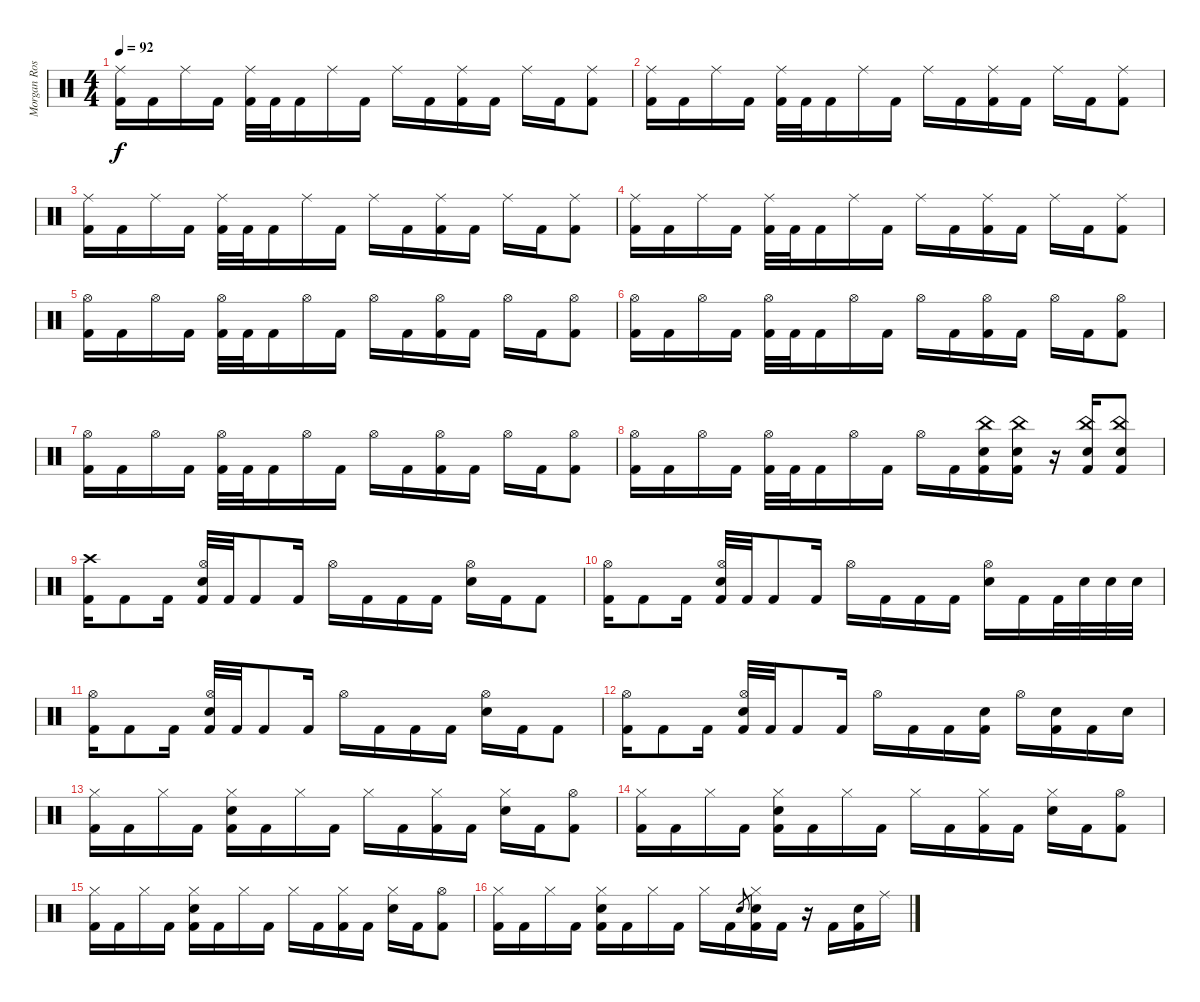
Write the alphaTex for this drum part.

\track ("Morgan Rose - Drums" "Morgan Ros") {instrument percussion}
\staff {score}
\articulation defaults
\ts (4 4)
\tempo 92
\clef neutral
\ks c
("Ride (middle)" "Kick (hit) 2").16{dy f} "Kick (hit) 2".16 "Ride (middle)".16 "Kick (hit) 2".16 ("Ride (middle)" "Kick (hit) 2").32 "Kick (hit) 2".32 "Kick (hit) 2".16 "Ride (middle)".16 "Kick (hit) 2".16 "Ride (middle)".16 "Kick (hit) 2".16 ("Ride (middle)" "Kick (hit) 2").16 "Kick (hit) 2".16 "Ride (middle)".16 "Kick (hit) 2".16 ("Ride (middle)" "Kick (hit) 2").8 |
("Ride (middle)" "Kick (hit) 2").16 "Kick (hit) 2".16 "Ride (middle)".16 "Kick (hit) 2".16 ("Ride (middle)" "Kick (hit) 2").32 "Kick (hit) 2".32 "Kick (hit) 2".16 "Ride (middle)".16 "Kick (hit) 2".16 "Ride (middle)".16 "Kick (hit) 2".16 ("Ride (middle)" "Kick (hit) 2").16 "Kick (hit) 2".16 "Ride (middle)".16 "Kick (hit) 2".16 ("Ride (middle)" "Kick (hit) 2").8 |
("Ride (middle)" "Kick (hit) 2").16 "Kick (hit) 2".16 "Ride (middle)".16 "Kick (hit) 2".16 ("Ride (middle)" "Kick (hit) 2").32 "Kick (hit) 2".32 "Kick (hit) 2".16 "Ride (middle)".16 "Kick (hit) 2".16 "Ride (middle)".16 "Kick (hit) 2".16 ("Ride (middle)" "Kick (hit) 2").16 "Kick (hit) 2".16 "Ride (middle)".16 "Kick (hit) 2".16 ("Ride (middle)" "Kick (hit) 2").8 |
("Ride (middle)" "Kick (hit) 2").16 "Kick (hit) 2".16 "Ride (middle)".16 "Kick (hit) 2".16 ("Ride (middle)" "Kick (hit) 2").32 "Kick (hit) 2".32 "Kick (hit) 2".16 "Ride (middle)".16 "Kick (hit) 2".16 "Ride (middle)".16 "Kick (hit) 2".16 ("Ride (middle)" "Kick (hit) 2").16 "Kick (hit) 2".16 "Ride (middle)".16 "Kick (hit) 2".16 ("Ride (middle)" "Kick (hit) 2").8 |
("Hi-Hat (open)" "Kick (hit) 2").16 "Kick (hit) 2".16 "Hi-Hat (open)".16 "Kick (hit) 2".16 ("Hi-Hat (open)" "Kick (hit) 2").32 "Kick (hit) 2".32 "Kick (hit) 2".16 "Hi-Hat (open)".16 "Kick (hit) 2".16 "Hi-Hat (open)".16 "Kick (hit) 2".16 ("Hi-Hat (open)" "Kick (hit) 2").16 "Kick (hit) 2".16 "Hi-Hat (open)".16 "Kick (hit) 2".16 ("Hi-Hat (open)" "Kick (hit) 2").8 |
("Hi-Hat (open)" "Kick (hit) 2").16 "Kick (hit) 2".16 "Hi-Hat (open)".16 "Kick (hit) 2".16 ("Hi-Hat (open)" "Kick (hit) 2").32 "Kick (hit) 2".32 "Kick (hit) 2".16 "Hi-Hat (open)".16 "Kick (hit) 2".16 "Hi-Hat (open)".16 "Kick (hit) 2".16 ("Hi-Hat (open)" "Kick (hit) 2").16 "Kick (hit) 2".16 "Hi-Hat (open)".16 "Kick (hit) 2".16 ("Hi-Hat (open)" "Kick (hit) 2").8 |
("Hi-Hat (open)" "Kick (hit) 2").16 "Kick (hit) 2".16 "Hi-Hat (open)".16 "Kick (hit) 2".16 ("Hi-Hat (open)" "Kick (hit) 2").32 "Kick (hit) 2".32 "Kick (hit) 2".16 "Hi-Hat (open)".16 "Kick (hit) 2".16 "Hi-Hat (open)".16 "Kick (hit) 2".16 ("Hi-Hat (open)" "Kick (hit) 2").16 "Kick (hit) 2".16 "Hi-Hat (open)".16 "Kick (hit) 2".16 ("Hi-Hat (open)" "Kick (hit) 2").8 |
("Hi-Hat (open)" "Kick (hit) 2").16 "Kick (hit) 2".16 "Hi-Hat (open)".16 "Kick (hit) 2".16 ("Hi-Hat (open)" "Kick (hit) 2").32 "Kick (hit) 2".32 "Kick (hit) 2".16 "Hi-Hat (open)".16 "Kick (hit) 2".16 "Hi-Hat (open)".16 "Kick (hit) 2".16 ("China (hit)" "Electric Snare (hit)" "Kick (hit) 2").16 ("China (hit)" "Electric Snare (hit)" "Kick (hit) 2").16 r.16 ("China (hit)" "Electric Snare (hit)" "Kick (hit) 2").16 ("China (hit)" "Electric Snare (hit)" "Kick (hit) 2").8 |
("Crash high (hit)" "Kick (hit) 2").16 "Kick (hit) 2".8 "Kick (hit) 2".16 ("Hi-Hat (open)" "Electric Snare (hit)" "Kick (hit) 2").32 "Kick (hit) 2".32 "Kick (hit) 2".8 "Kick (hit) 2".16 "Hi-Hat (open)".16 "Kick (hit) 2".16 "Kick (hit) 2".16 "Kick (hit) 2".16 ("Hi-Hat (open)" "Electric Snare (hit)").16 "Kick (hit) 2".16 "Kick (hit) 2".8 |
("Hi-Hat (open)" "Kick (hit) 2").16 "Kick (hit) 2".8 "Kick (hit) 2".16 ("Hi-Hat (open)" "Electric Snare (hit)" "Kick (hit) 2").32 "Kick (hit) 2".32 "Kick (hit) 2".8 "Kick (hit) 2".16 "Hi-Hat (open)".16 "Kick (hit) 2".16 "Kick (hit) 2".16 "Kick (hit) 2".16 ("Hi-Hat (open)" "Electric Snare (hit)").16 "Kick (hit) 2".16 "Kick (hit) 2".32 "Electric Snare (hit)".32 "Electric Snare (hit)".32 "Electric Snare (hit)".32 |
("Hi-Hat (open)" "Kick (hit) 2").16 "Kick (hit) 2".8 "Kick (hit) 2".16 ("Hi-Hat (open)" "Electric Snare (hit)" "Kick (hit) 2").32 "Kick (hit) 2".32 "Kick (hit) 2".8 "Kick (hit) 2".16 "Hi-Hat (open)".16 "Kick (hit) 2".16 "Kick (hit) 2".16 "Kick (hit) 2".16 ("Hi-Hat (open)" "Electric Snare (hit)").16 "Kick (hit) 2".16 "Kick (hit) 2".8 |
("Hi-Hat (open)" "Kick (hit) 2").16 "Kick (hit) 2".8 "Kick (hit) 2".16 ("Hi-Hat (open)" "Electric Snare (hit)" "Kick (hit) 2").32 "Kick (hit) 2".32 "Kick (hit) 2".8 "Kick (hit) 2".16 "Hi-Hat (open)".16 "Kick (hit) 2".16 "Kick (hit) 2".16 ("Electric Snare (hit)" "Kick (hit) 2").16 "Hi-Hat (open)".16 ("Electric Snare (hit)" "Kick (hit) 2").16 "Kick (hit) 2".16 "Electric Snare (hit)".16 |
("Hi-Hat (closed)" "Kick (hit) 2").16 "Kick (hit) 2".16 "Hi-Hat (closed)".16 "Kick (hit) 2".16 ("Hi-Hat (closed)" "Electric Snare (hit)" "Kick (hit) 2").16 "Kick (hit) 2".16 "Hi-Hat (closed)".16 "Kick (hit) 2".16 "Hi-Hat (closed)".16 "Kick (hit) 2".16 ("Hi-Hat (closed)" "Kick (hit) 2").16 "Kick (hit) 2".16 ("Hi-Hat (closed)" "Electric Snare (hit)").16 "Kick (hit) 2".16 ("Hi-Hat (open)" "Kick (hit) 2").8 |
("Hi-Hat (closed)" "Kick (hit) 2").16 "Kick (hit) 2".16 "Hi-Hat (closed)".16 "Kick (hit) 2".16 ("Hi-Hat (closed)" "Electric Snare (hit)" "Kick (hit) 2").16 "Kick (hit) 2".16 "Hi-Hat (closed)".16 "Kick (hit) 2".16 "Hi-Hat (closed)".16 "Kick (hit) 2".16 ("Hi-Hat (closed)" "Kick (hit) 2").16 "Kick (hit) 2".16 ("Hi-Hat (closed)" "Electric Snare (hit)").16 "Kick (hit) 2".16 ("Hi-Hat (open)" "Kick (hit) 2").8 |
("Hi-Hat (closed)" "Kick (hit) 2").16 "Kick (hit) 2".16 "Hi-Hat (closed)".16 "Kick (hit) 2".16 ("Hi-Hat (closed)" "Electric Snare (hit)" "Kick (hit) 2").16 "Kick (hit) 2".16 "Hi-Hat (closed)".16 "Kick (hit) 2".16 "Hi-Hat (closed)".16 "Kick (hit) 2".16 ("Hi-Hat (closed)" "Kick (hit) 2").16 "Kick (hit) 2".16 ("Hi-Hat (closed)" "Electric Snare (hit)").16 "Kick (hit) 2".16 ("Hi-Hat (open)" "Kick (hit) 2").8 |
("Hi-Hat (closed)" "Kick (hit) 2").16 "Kick (hit) 2".16 "Hi-Hat (closed)".16 "Kick (hit) 2".16 ("Hi-Hat (closed)" "Electric Snare (hit)" "Kick (hit) 2").16 "Kick (hit) 2".16 "Hi-Hat (closed)".16 "Kick (hit) 2".16 "Hi-Hat (closed)".16 "Kick (hit) 2".16 "Electric Snare (hit)".8{gr} ("Hi-Hat (closed)" "Electric Snare (hit)" "Kick (hit) 2").16 "Kick (hit) 2".16 r.16 "Kick (hit) 2".16 ("Electric Snare (hit)" "Kick (hit) 2").16 "Ride (middle)".16
